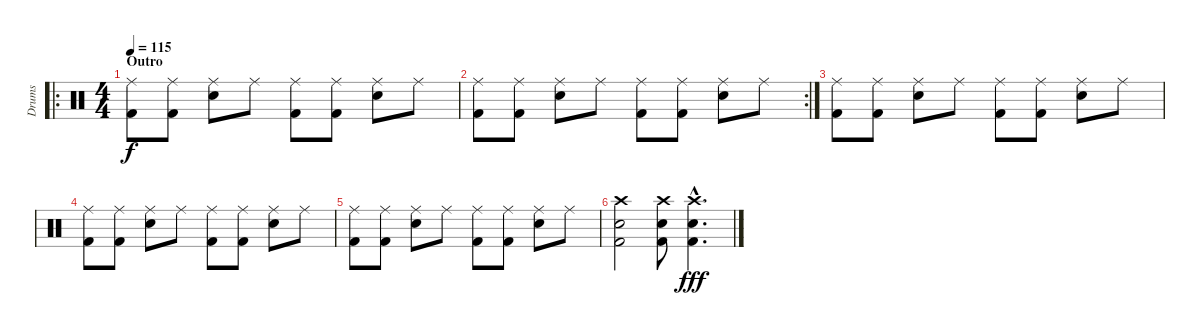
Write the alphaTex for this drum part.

\track ("Drums" "Drums") {instrument percussion}
\staff {score}
\articulation defaults
\ro
\ts (4 4)
\section ("" "Outro")
\tempo 115
\clef neutral
\ks c
("Ride (middle)" "Kick (hit) 2").8{dy f} ("Ride (middle)" "Kick (hit) 2").8 ("Ride (middle)" "Electric Snare (hit)").8 "Ride (middle)".8 ("Ride (middle)" "Kick (hit) 2").8 ("Ride (middle)" "Kick (hit) 2").8 ("Ride (middle)" "Electric Snare (hit)").8 "Ride (middle)".8 |
\rc 2
("Ride (middle)" "Kick (hit) 2").8 ("Ride (middle)" "Kick (hit) 2").8 ("Ride (middle)" "Electric Snare (hit)").8 "Ride (middle)".8 ("Ride (middle)" "Kick (hit) 2").8 ("Ride (middle)" "Kick (hit) 2").8 ("Ride (middle)" "Electric Snare (hit)").8 "Ride (middle)".8 |
("Ride (middle)" "Kick (hit) 2").8 ("Ride (middle)" "Kick (hit) 2").8 ("Ride (middle)" "Electric Snare (hit)").8 "Ride (middle)".8 ("Ride (middle)" "Kick (hit) 2").8 ("Ride (middle)" "Kick (hit) 2").8 ("Ride (middle)" "Electric Snare (hit)").8 "Ride (middle)".8 |
("Ride (middle)" "Kick (hit) 2").8 ("Ride (middle)" "Kick (hit) 2").8 ("Ride (middle)" "Electric Snare (hit)").8 "Ride (middle)".8 ("Ride (middle)" "Kick (hit) 2").8 ("Ride (middle)" "Kick (hit) 2").8 ("Ride (middle)" "Electric Snare (hit)").8 "Ride (middle)".8 |
("Ride (middle)" "Kick (hit) 2").8 ("Ride (middle)" "Kick (hit) 2").8 ("Ride (middle)" "Electric Snare (hit)").8 "Ride (middle)".8 ("Ride (middle)" "Kick (hit) 2").8 ("Ride (middle)" "Kick (hit) 2").8 ("Ride (middle)" "Electric Snare (hit)").8 "Ride (middle)".8 |
("Crash high (hit)" "Kick (hit) 2" "Electric Snare (hit)").2 ("Crash high (hit)" "Electric Snare (hit)" "Kick (hit) 2").8 ("Crash high (hit)"{hac} "Electric Snare (hit)"{hac} "Kick (hit) 2"{hac}).4{d dy fff}
